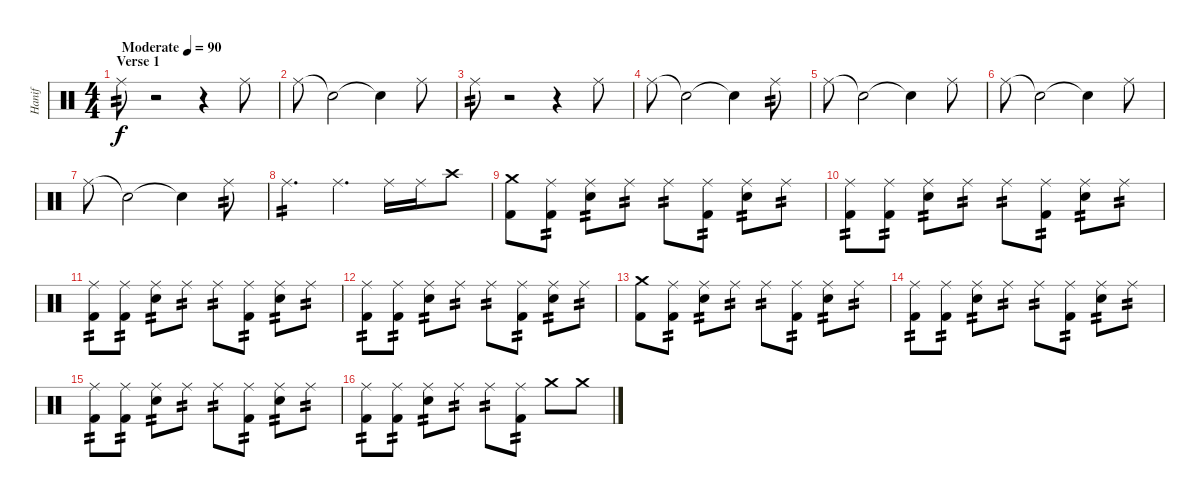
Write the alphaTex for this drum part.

\track ("Hanif" "Hanif") {instrument percussion}
\staff {score}
\articulation defaults
\ts (4 4)
\section ("" "Verse 1")
\tempo (90 "Moderate")
\clef neutral
\ks c "Ride (middle)".8{tp 2 dy f}
r.2 r.4 "Ride (middle)".8 |
"Ride (middle)".8 "Snare (hit)"{t}.2 "Snare (hit)"{t}.4 "Ride (middle)".8 |
"Ride (middle)".8{tp 2} r.2 r.4 "Ride (middle)".8 |
"Ride (middle)".8 "Snare (hit)"{t}.2 "Snare (hit)"{t}.4 "Ride (middle)".8{tp 2} |
"Ride (middle)".8 "Snare (hit)"{t}.2 "Snare (hit)"{t}.4 "Ride (middle)".8 |
"Ride (middle)".8 "Snare (hit)"{t}.2 "Snare (hit)"{t}.4 "Ride (middle)".8 |
"Ride (middle)".8 "Snare (hit)"{t}.2 "Snare (hit)"{t}.4 "Ride (middle)".8{tp 2} |
"Ride (middle)".4{d tp 2} "Ride (middle)".4{d} "Ride (middle)".16 "Ride (middle)".16 "Crash high (hit)".8 |
("Crash medium (hit)" "Kick (hit) 2").8 ("Ride (middle)" "Kick (hit) 2").8{tp 2} ("Ride (middle)" "Snare (hit) 2").8{tp 2} "Ride (middle)".8{tp 2} "Ride (middle)".8{tp 2} ("Ride (middle)" "Kick (hit) 2").8{tp 2} ("Ride (middle)" "Snare (hit) 2").8{tp 2} "Ride (middle)".8{tp 2} |
("Ride (middle)" "Kick (hit) 2").8{tp 2} ("Ride (middle)" "Kick (hit) 2").8{tp 2} ("Ride (middle)" "Snare (hit) 2").8{tp 2} "Ride (middle)".8{tp 2} "Ride (middle)".8{tp 2} ("Ride (middle)" "Kick (hit) 2").8{tp 2} ("Ride (middle)" "Snare (hit) 2").8{tp 2} "Ride (middle)".8{tp 2} |
("Ride (middle)" "Kick (hit) 2").8{tp 2} ("Ride (middle)" "Kick (hit) 2").8{tp 2} ("Ride (middle)" "Snare (hit) 2").8{tp 2} "Ride (middle)".8{tp 2} "Ride (middle)".8{tp 2} ("Ride (middle)" "Kick (hit) 2").8{tp 2} ("Ride (middle)" "Snare (hit) 2").8{tp 2} "Ride (middle)".8{tp 2} |
("Ride (middle)" "Kick (hit) 2").8{tp 2} ("Ride (middle)" "Kick (hit) 2").8{tp 2} ("Ride (middle)" "Snare (hit) 2").8{tp 2} "Ride (middle)".8{tp 2} "Ride (middle)".8{tp 2} ("Ride (middle)" "Kick (hit) 2").8{tp 2} ("Ride (middle)" "Snare (hit) 2").8{tp 2} "Ride (middle)".8{tp 2} |
("Crash medium (hit)" "Kick (hit) 2").8 ("Ride (middle)" "Kick (hit) 2").8{tp 2} ("Ride (middle)" "Snare (hit) 2").8{tp 2} "Ride (middle)".8{tp 2} "Ride (middle)".8{tp 2} ("Ride (middle)" "Kick (hit) 2").8{tp 2} ("Ride (middle)" "Snare (hit) 2").8{tp 2} "Ride (middle)".8{tp 2} |
("Ride (middle)" "Kick (hit) 2").8{tp 2} ("Ride (middle)" "Kick (hit) 2").8{tp 2} ("Ride (middle)" "Snare (hit) 2").8{tp 2} "Ride (middle)".8{tp 2} "Ride (middle)".8{tp 2} ("Ride (middle)" "Kick (hit) 2").8{tp 2} ("Ride (middle)" "Snare (hit) 2").8{tp 2} "Ride (middle)".8{tp 2} |
("Ride (middle)" "Kick (hit) 2").8{tp 2} ("Ride (middle)" "Kick (hit) 2").8{tp 2} ("Ride (middle)" "Snare (hit) 2").8{tp 2} "Ride (middle)".8{tp 2} "Ride (middle)".8{tp 2} ("Ride (middle)" "Kick (hit) 2").8{tp 2} ("Ride (middle)" "Snare (hit) 2").8{tp 2} "Ride (middle)".8{tp 2} |
("Ride (middle)" "Kick (hit) 2").8{tp 2} ("Ride (middle)" "Kick (hit) 2").8{tp 2} ("Ride (middle)" "Snare (hit) 2").8{tp 2} "Ride (middle)".8{tp 2} "Ride (middle)".8{tp 2} ("Ride (middle)" "Kick (hit) 2").8{tp 2} "Crash medium (hit)".8 "Crash medium (hit)".8
